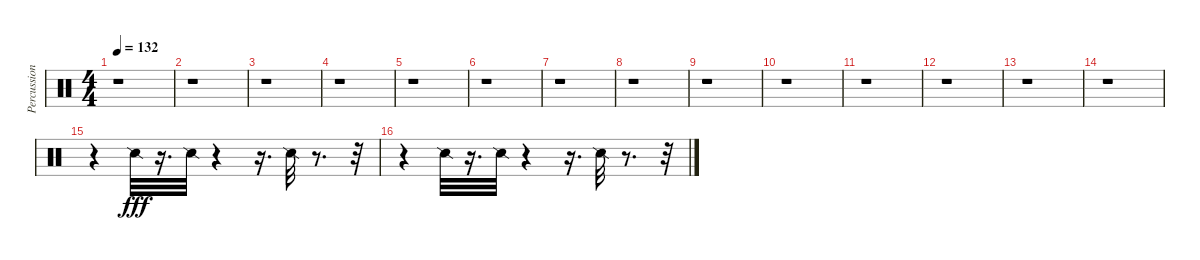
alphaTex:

\track ("Percussion 1" "Percussion") {instrument percussion}
\staff {score}
\articulation defaults
\ts (4 4)
\tempo 132
\clef neutral
\ks c
r.1{dy fff} |
r.1 |
r.1 |
r.1 |
r.1 |
r.1 |
r.1 |
r.1 |
r.1 |
r.1 |
r.1 |
r.1 |
r.1 |
r.1 |
r.4 "Snare (side stick) 2".32 r.16{d} "Snare (side stick) 2".32 r.4 r.16{d} "Snare (side stick) 2".32 r.8{d} r.32 |
r.4 "Snare (side stick) 2".32 r.16{d} "Snare (side stick) 2".32 r.4 r.16{d} "Snare (side stick) 2".32 r.8{d} r.32
